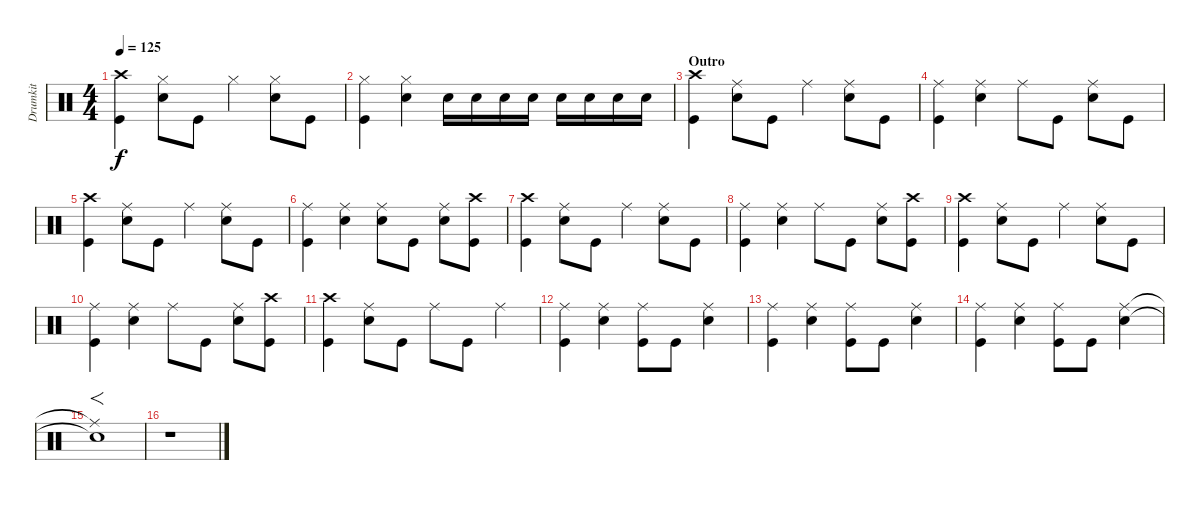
\track ("Drumkit" "Drumkit") {instrument percussion}
\staff {score}
\articulation defaults
\ts (4 4)
\tempo 125
\clef neutral
\ks c
("Crash high (hit)" "Kick (hit)").4{dy f} ("Hi-Hat (closed)" "Snare (hit) 2").8 "Kick (hit)".8 "Hi-Hat (closed)".4 ("Hi-Hat (closed)" "Snare (hit) 2").8 "Kick (hit)".8 |
("Hi-Hat (closed)" "Kick (hit)").4 ("Hi-Hat (closed)" "Snare (hit) 2").4 "Snare (hit) 2".16 "Snare (hit) 2".16 "Snare (hit) 2".16 "Snare (hit) 2".16 "Snare (hit) 2".16 "Snare (hit) 2".16 "Snare (hit) 2".16 "Snare (hit) 2".16 |
\section ("" "Outro")
("Crash high (hit)" "Kick (hit)").4 ("Ride (middle)" "Snare (hit) 2").8 "Kick (hit)".8 "Ride (middle)".4 ("Ride (middle)" "Snare (hit) 2").8 "Kick (hit)".8 |
("Ride (middle)" "Kick (hit)").4 ("Ride (middle)" "Snare (hit) 2").4 "Ride (middle)".8 "Kick (hit)".8 ("Ride (middle)" "Snare (hit) 2").8 "Kick (hit)".8 |
("Crash high (hit)" "Kick (hit)").4 ("Ride (middle)" "Snare (hit) 2").8 "Kick (hit)".8 "Ride (middle)".4 ("Ride (middle)" "Snare (hit) 2").8 "Kick (hit)".8 |
("Ride (middle)" "Kick (hit)").4 ("Ride (middle)" "Snare (hit) 2").4 ("Ride (middle)" "Snare (hit) 2").8 "Kick (hit)".8 ("Ride (middle)" "Snare (hit) 2").8 ("Crash high (hit)" "Kick (hit)").8 |
("Crash high (hit)" "Kick (hit)").4 ("Ride (middle)" "Snare (hit) 2").8 "Kick (hit)".8 "Ride (middle)".4 ("Ride (middle)" "Snare (hit) 2").8 "Kick (hit)".8 |
("Ride (middle)" "Kick (hit)").4 ("Ride (middle)" "Snare (hit) 2").4 "Ride (middle)".8 "Kick (hit)".8 ("Ride (middle)" "Snare (hit) 2").8 ("Crash high (hit)" "Kick (hit)").8 |
("Crash high (hit)" "Kick (hit)").4 ("Ride (middle)" "Snare (hit) 2").8 "Kick (hit)".8 "Ride (middle)".4 ("Ride (middle)" "Snare (hit) 2").8 "Kick (hit)".8 |
("Ride (middle)" "Kick (hit)").4 ("Ride (middle)" "Snare (hit) 2").4 "Ride (middle)".8 "Kick (hit)".8 ("Ride (middle)" "Snare (hit) 2").8 ("Crash high (hit)" "Kick (hit)").8 |
("Crash high (hit)" "Kick (hit)").4 ("Ride (middle)" "Snare (hit) 2").8 "Kick (hit)".8 "Ride (middle)".8 "Kick (hit)".8 "Ride (middle)".4 |
("Ride (middle)" "Kick (hit)").4 ("Ride (middle)" "Snare (hit) 2").4 ("Ride (middle)" "Kick (hit)").8 "Kick (hit)".8 ("Ride (middle)" "Snare (hit) 2").4 |
("Ride (middle)" "Kick (hit)").4 ("Ride (middle)" "Snare (hit) 2").4 ("Ride (middle)" "Kick (hit)").8 "Kick (hit)".8 ("Ride (middle)" "Snare (hit) 2").4 |
("Ride (middle)" "Kick (hit)").4 ("Ride (middle)" "Snare (hit) 2").4 ("Ride (middle)" "Kick (hit)").8 "Kick (hit)".8 ("Ride (middle)" "Snare (hit) 2").4 |
("Ride (middle)"{t} "Snare (hit) 2"{t}).1{f} |
r.1
